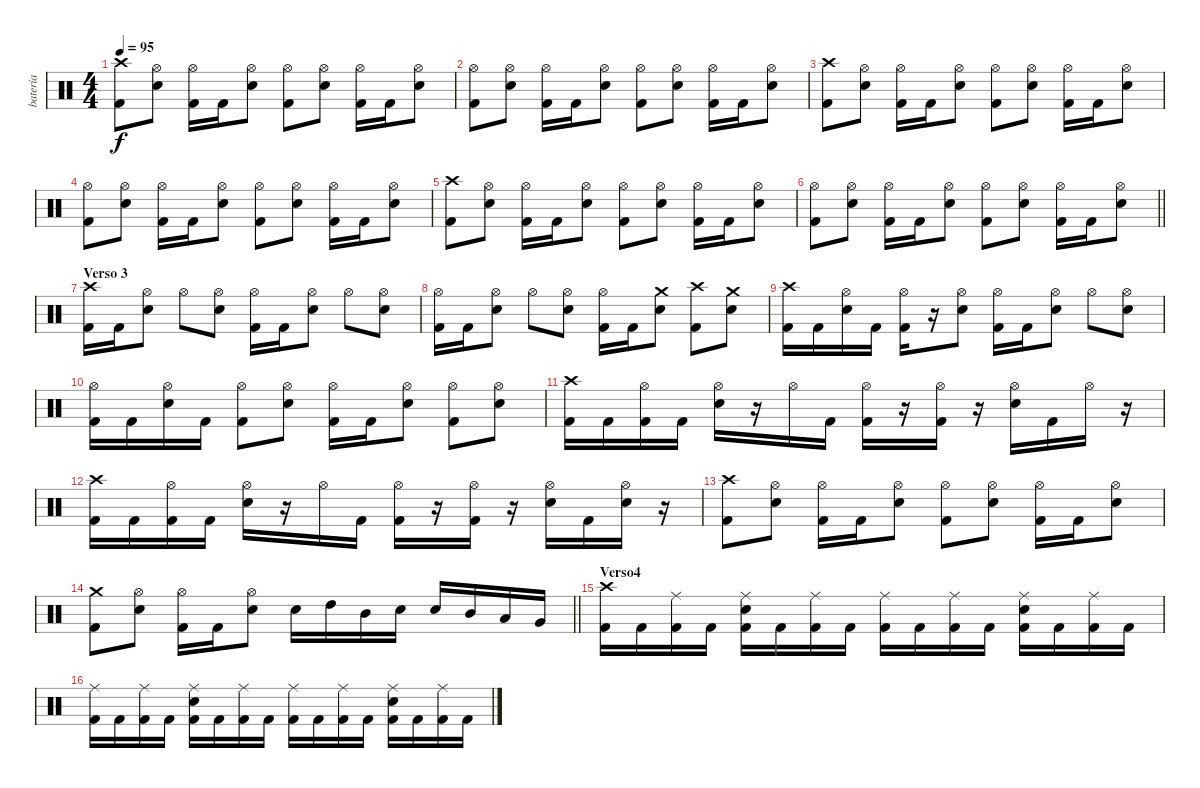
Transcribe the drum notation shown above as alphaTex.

\track ("batería" "batería") {instrument percussion}
\staff {score}
\articulation defaults
\ts (4 4)
\tempo 95
\clef neutral
\ks c
("Crash high (hit)" "Kick (hit) 2").8{dy f} ("Hi-Hat (open)" "Electric Snare (hit)").8 ("Hi-Hat (open)" "Kick (hit) 2").16 "Kick (hit) 2".16 ("Hi-Hat (open)" "Electric Snare (hit)").8 ("Hi-Hat (open)" "Kick (hit) 2").8 ("Hi-Hat (open)" "Electric Snare (hit)").8 ("Hi-Hat (open)" "Kick (hit) 2").16 "Kick (hit) 2".16 ("Hi-Hat (open)" "Electric Snare (hit)").8 |
("Hi-Hat (open)" "Kick (hit) 2").8 ("Hi-Hat (open)" "Electric Snare (hit)").8 ("Hi-Hat (open)" "Kick (hit) 2").16 "Kick (hit) 2".16 ("Hi-Hat (open)" "Electric Snare (hit)").8 ("Hi-Hat (open)" "Kick (hit) 2").8 ("Hi-Hat (open)" "Electric Snare (hit)").8 ("Hi-Hat (open)" "Kick (hit) 2").16 "Kick (hit) 2".16 ("Hi-Hat (open)" "Electric Snare (hit)").8 |
("Crash high (hit)" "Kick (hit) 2").8 ("Hi-Hat (open)" "Electric Snare (hit)").8 ("Hi-Hat (open)" "Kick (hit) 2").16 "Kick (hit) 2".16 ("Hi-Hat (open)" "Electric Snare (hit)").8 ("Hi-Hat (open)" "Kick (hit) 2").8 ("Hi-Hat (open)" "Electric Snare (hit)").8 ("Hi-Hat (open)" "Kick (hit) 2").16 "Kick (hit) 2".16 ("Hi-Hat (open)" "Electric Snare (hit)").8 |
("Hi-Hat (open)" "Kick (hit) 2").8 ("Hi-Hat (open)" "Electric Snare (hit)").8 ("Hi-Hat (open)" "Kick (hit) 2").16 "Kick (hit) 2".16 ("Hi-Hat (open)" "Electric Snare (hit)").8 ("Hi-Hat (open)" "Kick (hit) 2").8 ("Hi-Hat (open)" "Electric Snare (hit)").8 ("Hi-Hat (open)" "Kick (hit) 2").16 "Kick (hit) 2".16 ("Hi-Hat (open)" "Electric Snare (hit)").8 |
("Crash high (hit)" "Kick (hit) 2").8 ("Hi-Hat (open)" "Electric Snare (hit)").8 ("Hi-Hat (open)" "Kick (hit) 2").16 "Kick (hit) 2".16 ("Hi-Hat (open)" "Electric Snare (hit)").8 ("Hi-Hat (open)" "Kick (hit) 2").8 ("Hi-Hat (open)" "Electric Snare (hit)").8 ("Hi-Hat (open)" "Kick (hit) 2").16 "Kick (hit) 2".16 ("Hi-Hat (open)" "Electric Snare (hit)").8 |
\barLineRight lightlight
("Hi-Hat (open)" "Kick (hit) 2").8 ("Hi-Hat (open)" "Electric Snare (hit)").8 ("Hi-Hat (open)" "Kick (hit) 2").16 "Kick (hit) 2".16 ("Hi-Hat (open)" "Electric Snare (hit)").8 ("Hi-Hat (open)" "Kick (hit) 2").8 ("Hi-Hat (open)" "Electric Snare (hit)").8 ("Hi-Hat (open)" "Kick (hit) 2").16 "Kick (hit) 2".16 ("Hi-Hat (open)" "Electric Snare (hit)").8 |
\section ("" "Verso 3")
("Crash high (hit)" "Kick (hit) 2").16 "Kick (hit) 2".16 ("Hi-Hat (open)" "Electric Snare (hit)").8 "Hi-Hat (open)".8 ("Hi-Hat (open)" "Electric Snare (hit)").8 ("Hi-Hat (open)" "Kick (hit) 2").16 "Kick (hit) 2".16 ("Hi-Hat (open)" "Electric Snare (hit)").8 "Hi-Hat (open)".8 ("Hi-Hat (open)" "Electric Snare (hit)").8 |
("Hi-Hat (open)" "Kick (hit) 2").16 "Kick (hit) 2".16 ("Hi-Hat (open)" "Electric Snare (hit)").8 "Hi-Hat (open)".8 ("Hi-Hat (open)" "Electric Snare (hit)").8 ("Hi-Hat (open)" "Kick (hit) 2").16 "Kick (hit) 2".16 ("Crash medium (hit)" "Electric Snare (hit)").8 ("Crash high (hit)" "Kick (hit) 2").8 ("Crash medium (hit)" "Electric Snare (hit)").8 |
("Crash high (hit)" "Kick (hit) 2").16 "Kick (hit) 2".16 ("Hi-Hat (open)" "Electric Snare (hit)").16 "Kick (hit) 2".16 ("Hi-Hat (open)" "Kick (hit) 2").16 r.16 ("Hi-Hat (open)" "Electric Snare (hit)").8 ("Hi-Hat (open)" "Kick (hit) 2").16 "Kick (hit) 2".16 ("Hi-Hat (open)" "Electric Snare (hit)").8 "Hi-Hat (open)".8 ("Hi-Hat (open)" "Electric Snare (hit)").8 |
("Hi-Hat (open)" "Kick (hit) 2").16 "Kick (hit) 2".16 ("Hi-Hat (open)" "Electric Snare (hit)").16 "Kick (hit) 2".16 ("Hi-Hat (open)" "Kick (hit) 2").8 ("Hi-Hat (open)" "Electric Snare (hit)").8 ("Hi-Hat (open)" "Kick (hit) 2").16 "Kick (hit) 2".16 ("Hi-Hat (open)" "Electric Snare (hit)").8 ("Hi-Hat (open)" "Kick (hit) 2").8 ("Hi-Hat (open)" "Electric Snare (hit)").8 |
("Crash high (hit)" "Kick (hit) 2").16 "Kick (hit) 2".16 ("Hi-Hat (open)" "Kick (hit) 2").16 "Kick (hit) 2".16 ("Hi-Hat (open)" "Electric Snare (hit)").16 r.16 "Hi-Hat (open)".16 "Kick (hit) 2".16 ("Hi-Hat (open)" "Kick (hit) 2").16 r.16 ("Hi-Hat (open)" "Kick (hit) 2").16 r.16 ("Hi-Hat (open)" "Electric Snare (hit)").16 "Kick (hit) 2".16 "Hi-Hat (open)".16 r.16 |
("Crash high (hit)" "Kick (hit) 2").16 "Kick (hit) 2".16 ("Hi-Hat (open)" "Kick (hit) 2").16 "Kick (hit) 2".16 ("Hi-Hat (open)" "Electric Snare (hit)").16 r.16 "Hi-Hat (open)".16 "Kick (hit) 2".16 ("Hi-Hat (open)" "Kick (hit) 2").16 r.16 ("Hi-Hat (open)" "Kick (hit) 2").16 r.16 ("Hi-Hat (open)" "Electric Snare (hit)").16 "Kick (hit) 2".16 ("Hi-Hat (open)" "Electric Snare (hit)").16 r.16 |
("Crash high (hit)" "Kick (hit) 2").8 ("Hi-Hat (open)" "Electric Snare (hit)").8 ("Hi-Hat (open)" "Kick (hit) 2").16 "Kick (hit) 2".16 ("Hi-Hat (open)" "Electric Snare (hit)").8 ("Hi-Hat (open)" "Kick (hit) 2").8 ("Hi-Hat (open)" "Electric Snare (hit)").8 ("Hi-Hat (open)" "Kick (hit) 2").16 "Kick (hit) 2".16 ("Hi-Hat (open)" "Electric Snare (hit)").8 |
\barLineRight lightlight
("Crash medium (hit)" "Kick (hit) 2").8 ("Hi-Hat (open)" "Electric Snare (hit)").8 ("Hi-Hat (open)" "Kick (hit) 2").16 "Kick (hit) 2".16 ("Hi-Hat (open)" "Electric Snare (hit)").8 "Electric Snare (hit)".16 "High Tom (hit)".16 "Mid Tom (hit)".16 "Electric Snare (hit)".16 "Electric Snare (hit)".16 "Mid Tom (hit)".16 "Low Tom (hit)".16 "Very Low Tom (hit)".16 |
\section ("" "Verso4")
("Crash high (hit)" "Kick (hit) 2").16 "Kick (hit) 2".16 ("Ride (middle)" "Kick (hit) 2").16 "Kick (hit) 2".16 ("Ride (middle)" "Electric Snare (hit)" "Kick (hit) 2").16 "Kick (hit) 2".16 ("Ride (middle)" "Kick (hit) 2").16 "Kick (hit) 2".16 ("Ride (middle)" "Kick (hit) 2").16 "Kick (hit) 2".16 ("Ride (middle)" "Kick (hit) 2").16 "Kick (hit) 2".16 ("Ride (middle)" "Electric Snare (hit)" "Kick (hit) 2").16 "Kick (hit) 2".16 ("Ride (middle)" "Kick (hit) 2").16 "Kick (hit) 2".16 |
("Ride (middle)" "Kick (hit) 2").16 "Kick (hit) 2".16 ("Ride (middle)" "Kick (hit) 2").16 "Kick (hit) 2".16 ("Ride (middle)" "Electric Snare (hit)" "Kick (hit) 2").16 "Kick (hit) 2".16 ("Ride (middle)" "Kick (hit) 2").16 "Kick (hit) 2".16 ("Ride (middle)" "Kick (hit) 2").16 "Kick (hit) 2".16 ("Ride (middle)" "Kick (hit) 2").16 "Kick (hit) 2".16 ("Ride (middle)" "Electric Snare (hit)" "Kick (hit) 2").16 "Kick (hit) 2".16 ("Ride (middle)" "Kick (hit) 2").16 "Kick (hit) 2".16
